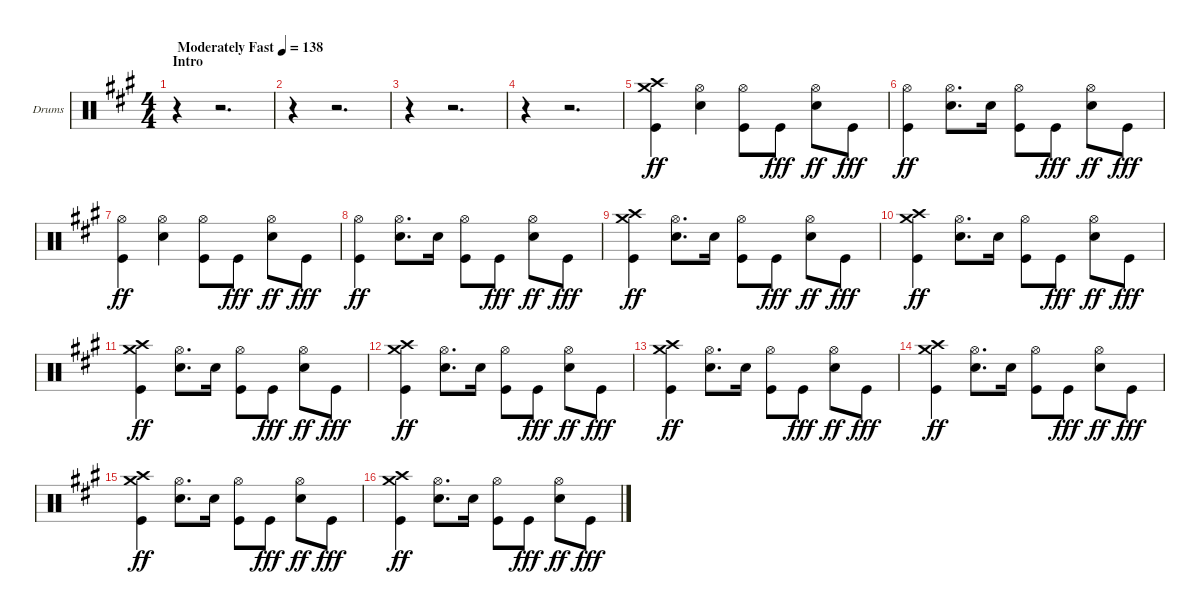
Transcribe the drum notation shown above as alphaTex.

\defaultSystemsLayout 4
\bracketExtendMode groupsimilarinstruments
\firstSystemTrackNameOrientation horizontal
\otherSystemsTrackNameOrientation horizontal
\track ("Drumkit" "Drums") {instrument percussion}
\staff {score}
\articulation defaults
\ts (4 4)
\section ("" "Intro")
\tempo (138 "Moderately Fast")
\clef neutral
\scale
1.08827
\ks a
r.4{dy ff} r.2{d} |
\scale
0.911728 r.4 r.2{d} |
\scale
1.05801 r.4 r.2{d} |
\scale
0.941992 r.4 r.2{d} |
\scale
1.05801 ("Crash high (hit)" "Crash medium (hit)" "Kick (hit)").4 ("Hi-Hat (open)" "Snare (hit) 2").4 ("Hi-Hat (open)" "Kick (hit)").8 "Kick (hit)".8{dy fff} ("Hi-Hat (open)" "Snare (hit) 2").8{dy ff} "Kick (hit)".8{dy fff} |
\scale
0.941992 ("Hi-Hat (open)" "Kick (hit)").4{dy ff} ("Hi-Hat (open)" "Snare (hit) 2").8{d} "Snare (hit) 2".16 ("Hi-Hat (open)" "Kick (hit)").8 "Kick (hit)".8{dy fff} ("Hi-Hat (open)" "Snare (hit) 2").8{dy ff} "Kick (hit)".8{dy fff} |
\scale
1.05801 ("Hi-Hat (open)" "Kick (hit)").4{dy ff} ("Hi-Hat (open)" "Snare (hit) 2").4 ("Hi-Hat (open)" "Kick (hit)").8 "Kick (hit)".8{dy fff} ("Hi-Hat (open)" "Snare (hit) 2").8{dy ff} "Kick (hit)".8{dy fff} |
\scale
0.941992 ("Hi-Hat (open)" "Kick (hit)").4{dy ff} ("Hi-Hat (open)" "Snare (hit) 2").8{d} "Snare (hit) 2".16 ("Hi-Hat (open)" "Kick (hit)").8 "Kick (hit)".8{dy fff} ("Hi-Hat (open)" "Snare (hit) 2").8{dy ff} "Kick (hit)".8{dy fff} |
\scale
1.05801 ("Crash medium (hit)" "Crash high (hit)" "Kick (hit)").4{dy ff} ("Hi-Hat (open)" "Snare (hit) 2").8{d} "Snare (hit) 2".16 ("Hi-Hat (open)" "Kick (hit)").8 "Kick (hit)".8{dy fff} ("Hi-Hat (open)" "Snare (hit) 2").8{dy ff} "Kick (hit)".8{dy fff} |
\scale
0.941992 ("Crash medium (hit)" "Crash high (hit)" "Kick (hit)").4{dy ff} ("Hi-Hat (open)" "Snare (hit) 2").8{d} "Snare (hit) 2".16 ("Hi-Hat (open)" "Kick (hit)").8 "Kick (hit)".8{dy fff} ("Hi-Hat (open)" "Snare (hit) 2").8{dy ff} "Kick (hit)".8{dy fff} |
\scale
1.05801 ("Crash medium (hit)" "Crash high (hit)" "Kick (hit)").4{dy ff} ("Hi-Hat (open)" "Snare (hit) 2").8{d} "Snare (hit) 2".16 ("Hi-Hat (open)" "Kick (hit)").8 "Kick (hit)".8{dy fff} ("Hi-Hat (open)" "Snare (hit) 2").8{dy ff} "Kick (hit)".8{dy fff} |
\scale
0.941992 ("Crash medium (hit)" "Crash high (hit)" "Kick (hit)").4{dy ff} ("Hi-Hat (open)" "Snare (hit) 2").8{d} "Snare (hit) 2".16 ("Hi-Hat (open)" "Kick (hit)").8 "Kick (hit)".8{dy fff} ("Hi-Hat (open)" "Snare (hit) 2").8{dy ff} "Kick (hit)".8{dy fff} |
\scale
1.05801 ("Crash medium (hit)" "Crash high (hit)" "Kick (hit)").4{dy ff} ("Hi-Hat (open)" "Snare (hit) 2").8{d} "Snare (hit) 2".16 ("Hi-Hat (open)" "Kick (hit)").8 "Kick (hit)".8{dy fff} ("Hi-Hat (open)" "Snare (hit) 2").8{dy ff} "Kick (hit)".8{dy fff} |
\scale
0.941992 ("Crash medium (hit)" "Crash high (hit)" "Kick (hit)").4{dy ff} ("Hi-Hat (open)" "Snare (hit) 2").8{d} "Snare (hit) 2".16 ("Hi-Hat (open)" "Kick (hit)").8 "Kick (hit)".8{dy fff} ("Hi-Hat (open)" "Snare (hit) 2").8{dy ff} "Kick (hit)".8{dy fff} |
\scale
1.05801 ("Crash medium (hit)" "Crash high (hit)" "Kick (hit)").4{dy ff} ("Hi-Hat (open)" "Snare (hit) 2").8{d} "Snare (hit) 2".16 ("Hi-Hat (open)" "Kick (hit)").8 "Kick (hit)".8{dy fff} ("Hi-Hat (open)" "Snare (hit) 2").8{dy ff} "Kick (hit)".8{dy fff} |
\scale
0.941992 ("Crash medium (hit)" "Crash high (hit)" "Kick (hit)").4{dy ff} ("Hi-Hat (open)" "Snare (hit) 2").8{d} "Snare (hit) 2".16 ("Hi-Hat (open)" "Kick (hit)").8 "Kick (hit)".8{dy fff} ("Hi-Hat (open)" "Snare (hit) 2").8{dy ff} "Kick (hit)".8{dy fff}
